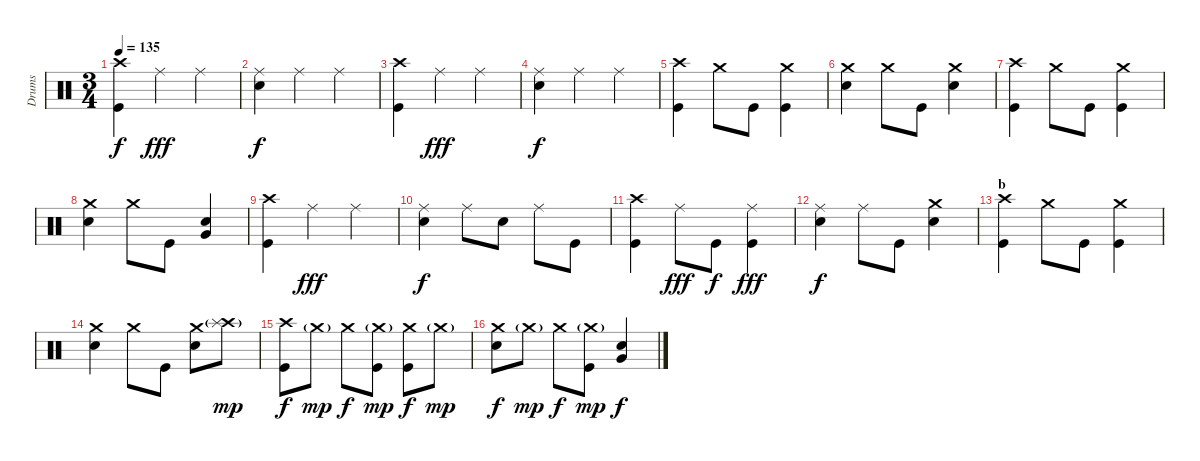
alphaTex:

\track ("Drums" "Drums") {instrument percussion}
\staff {score}
\articulation defaults
\ts (3 4)
\tempo 135
\clef neutral
\ks c
("Crash high (hit)" "Kick (hit)").4{dy f} "Ride (middle)".4{dy fff} "Ride (middle)".4 |
("Ride (middle)" "Snare (hit) 2").4{dy f} "Ride (middle)".4 "Ride (middle)".4 |
("Crash high (hit)" "Kick (hit)").4 "Ride (middle)".4{dy fff} "Ride (middle)".4 |
("Ride (middle)" "Snare (hit) 2").4{dy f} "Ride (middle)".4 "Ride (middle)".4 |
("Crash high (hit)" "Kick (hit)").4 "Crash medium (hit)".8 "Kick (hit)".8 ("Crash medium (hit)" "Kick (hit)").4 |
("Crash medium (hit)" "Snare (hit) 2").4 "Crash medium (hit)".8 "Kick (hit)".8 ("Crash medium (hit)" "Snare (hit) 2").4 |
("Crash high (hit)" "Kick (hit)").4 "Crash medium (hit)".8 "Kick (hit)".8 ("Crash medium (hit)" "Kick (hit)").4 |
("Crash medium (hit)" "Snare (hit) 2").4 "Crash medium (hit)".8 "Kick (hit)".8 ("Very Low Tom (hit)" "Snare (hit) 2").4 |
("Crash high (hit)" "Kick (hit)").4 "Ride (middle)".4{dy fff} "Ride (middle)".4 |
("Ride (middle)" "Snare (hit) 2").4{dy f} "Ride (middle)".8 "Snare (hit) 2".8 "Ride (middle)".8 "Kick (hit)".8 |
("Crash high (hit)" "Kick (hit)").4 "Ride (middle)".8{dy fff} "Kick (hit)".8{dy f} ("Ride (middle)" "Kick (hit)").4{dy fff} |
("Ride (middle)" "Snare (hit) 2").4{dy f} "Ride (middle)".8 "Kick (hit)".8 ("Crash medium (hit)" "Snare (hit) 2").4 |
\section ("" "b")
("Crash high (hit)" "Kick (hit)").4 "Crash medium (hit)".8 "Kick (hit)".8 ("Crash medium (hit)" "Kick (hit)").4 |
("Crash medium (hit)" "Snare (hit) 2").4 "Crash medium (hit)".8 "Kick (hit)".8 ("Crash medium (hit)" "Snare (hit) 2").8 ("Crash high (hit)"{g} "Splash (hit)").8{dy mp} |
("Crash high (hit)" "Kick (hit)").8{dy f} "Crash medium (hit)"{g}.8{dy mp} "Crash medium (hit)".8{dy f} ("Crash medium (hit)"{g} "Kick (hit)").8{dy mp} ("Crash medium (hit)" "Kick (hit)").8{dy f} "Crash medium (hit)"{g}.8{dy mp} |
("Crash medium (hit)" "Snare (hit) 2").8{dy f} "Crash medium (hit)"{g}.8{dy mp} "Crash medium (hit)".8{dy f} ("Crash medium (hit)"{g} "Kick (hit)").8{dy mp} ("Very Low Tom (hit)" "Snare (hit) 2").4{dy f}
